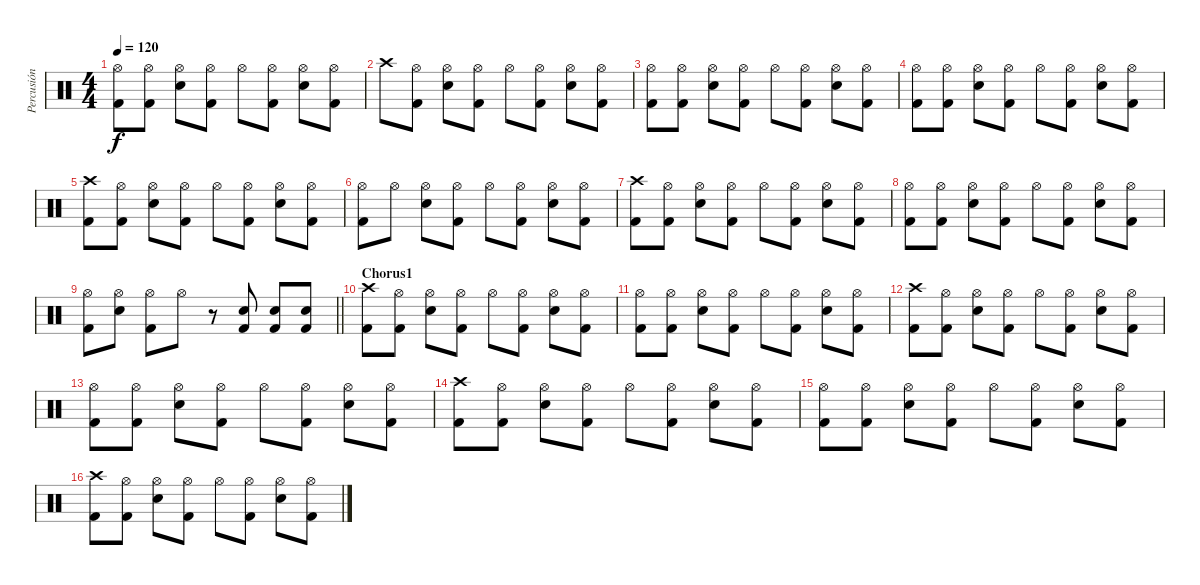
\track ("Percusión" "Percusión") {instrument percussion}
\staff {score}
\articulation defaults
\ts (4 4)
\tempo 120
\clef neutral
\ks c
("Hi-Hat (open)" "Kick (hit) 2").8{dy f} ("Hi-Hat (open)" "Kick (hit) 2").8 ("Hi-Hat (open)" "Snare (hit) 2").8 ("Hi-Hat (open)" "Kick (hit) 2").8 "Hi-Hat (open)".8 ("Hi-Hat (open)" "Kick (hit) 2").8 ("Hi-Hat (open)" "Snare (hit) 2").8 ("Hi-Hat (open)" "Kick (hit) 2").8 |
"Crash high (hit)".8 ("Hi-Hat (open)" "Kick (hit) 2").8 ("Hi-Hat (open)" "Snare (hit) 2").8 ("Hi-Hat (open)" "Kick (hit) 2").8 "Hi-Hat (open)".8 ("Hi-Hat (open)" "Kick (hit) 2").8 ("Hi-Hat (open)" "Snare (hit) 2").8 ("Hi-Hat (open)" "Kick (hit) 2").8 |
("Hi-Hat (open)" "Kick (hit) 2").8 ("Hi-Hat (open)" "Kick (hit) 2").8 ("Hi-Hat (open)" "Snare (hit) 2").8 ("Hi-Hat (open)" "Kick (hit) 2").8 "Hi-Hat (open)".8 ("Hi-Hat (open)" "Kick (hit) 2").8 ("Hi-Hat (open)" "Snare (hit) 2").8 ("Hi-Hat (open)" "Kick (hit) 2").8 |
("Hi-Hat (open)" "Kick (hit) 2").8 ("Hi-Hat (open)" "Kick (hit) 2").8 ("Hi-Hat (open)" "Snare (hit) 2").8 ("Hi-Hat (open)" "Kick (hit) 2").8 "Hi-Hat (open)".8 ("Hi-Hat (open)" "Kick (hit) 2").8 ("Hi-Hat (open)" "Snare (hit) 2").8 ("Hi-Hat (open)" "Kick (hit) 2").8 |
("Crash high (hit)" "Kick (hit) 2").8 ("Hi-Hat (open)" "Kick (hit) 2").8 ("Hi-Hat (open)" "Snare (hit) 2").8 ("Hi-Hat (open)" "Kick (hit) 2").8 "Hi-Hat (open)".8 ("Hi-Hat (open)" "Kick (hit) 2").8 ("Hi-Hat (open)" "Snare (hit) 2").8 ("Hi-Hat (open)" "Kick (hit) 2").8 |
("Hi-Hat (open)" "Kick (hit) 2").8 "Hi-Hat (open)".8 ("Hi-Hat (open)" "Snare (hit) 2").8 ("Hi-Hat (open)" "Kick (hit) 2").8 "Hi-Hat (open)".8 ("Hi-Hat (open)" "Kick (hit) 2").8 ("Hi-Hat (open)" "Snare (hit) 2").8 ("Hi-Hat (open)" "Kick (hit) 2").8 |
("Crash high (hit)" "Kick (hit) 2").8 ("Hi-Hat (open)" "Kick (hit) 2").8 ("Hi-Hat (open)" "Snare (hit) 2").8 ("Hi-Hat (open)" "Kick (hit) 2").8 "Hi-Hat (open)".8 ("Hi-Hat (open)" "Kick (hit) 2").8 ("Hi-Hat (open)" "Snare (hit) 2").8 ("Hi-Hat (open)" "Kick (hit) 2").8 |
("Hi-Hat (open)" "Kick (hit) 2").8 ("Hi-Hat (open)" "Kick (hit) 2").8 ("Hi-Hat (open)" "Snare (hit) 2").8 ("Hi-Hat (open)" "Kick (hit) 2").8 "Hi-Hat (open)".8 ("Hi-Hat (open)" "Kick (hit) 2").8 ("Hi-Hat (open)" "Snare (hit) 2").8 ("Hi-Hat (open)" "Kick (hit) 2").8 |
\barLineRight lightlight
("Hi-Hat (open)" "Kick (hit) 2").8 ("Hi-Hat (open)" "Snare (hit) 2").8 ("Hi-Hat (open)" "Kick (hit) 2").8 "Hi-Hat (open)".8 r.8 ("Snare (hit) 2" "Kick (hit) 2").8 ("Snare (hit) 2" "Kick (hit) 2").8 ("Snare (hit) 2" "Kick (hit) 2").8 |
\section ("" "Chorus1")
("Crash high (hit)" "Kick (hit) 2").8 ("Hi-Hat (open)" "Kick (hit) 2").8 ("Hi-Hat (open)" "Snare (hit) 2").8 ("Hi-Hat (open)" "Kick (hit) 2").8 "Hi-Hat (open)".8 ("Hi-Hat (open)" "Kick (hit) 2").8 ("Hi-Hat (open)" "Snare (hit) 2").8 ("Hi-Hat (open)" "Kick (hit) 2").8 |
("Hi-Hat (open)" "Kick (hit) 2").8 ("Hi-Hat (open)" "Kick (hit) 2").8 ("Hi-Hat (open)" "Snare (hit) 2").8 ("Hi-Hat (open)" "Kick (hit) 2").8 "Hi-Hat (open)".8 ("Hi-Hat (open)" "Kick (hit) 2").8 ("Hi-Hat (open)" "Snare (hit) 2").8 ("Hi-Hat (open)" "Kick (hit) 2").8 |
("Crash high (hit)" "Kick (hit) 2").8 ("Hi-Hat (open)" "Kick (hit) 2").8 ("Hi-Hat (open)" "Snare (hit) 2").8 ("Hi-Hat (open)" "Kick (hit) 2").8 "Hi-Hat (open)".8 ("Hi-Hat (open)" "Kick (hit) 2").8 ("Hi-Hat (open)" "Snare (hit) 2").8 ("Hi-Hat (open)" "Kick (hit) 2").8 |
("Hi-Hat (open)" "Kick (hit) 2").8 ("Hi-Hat (open)" "Kick (hit) 2").8 ("Hi-Hat (open)" "Snare (hit) 2").8 ("Hi-Hat (open)" "Kick (hit) 2").8 "Hi-Hat (open)".8 ("Hi-Hat (open)" "Kick (hit) 2").8 ("Hi-Hat (open)" "Snare (hit) 2").8 ("Hi-Hat (open)" "Kick (hit) 2").8 |
("Crash high (hit)" "Kick (hit) 2").8 ("Hi-Hat (open)" "Kick (hit) 2").8 ("Hi-Hat (open)" "Snare (hit) 2").8 ("Hi-Hat (open)" "Kick (hit) 2").8 "Hi-Hat (open)".8 ("Hi-Hat (open)" "Kick (hit) 2").8 ("Hi-Hat (open)" "Snare (hit) 2").8 ("Hi-Hat (open)" "Kick (hit) 2").8 |
("Hi-Hat (open)" "Kick (hit) 2").8 ("Hi-Hat (open)" "Kick (hit) 2").8 ("Hi-Hat (open)" "Snare (hit) 2").8 ("Hi-Hat (open)" "Kick (hit) 2").8 "Hi-Hat (open)".8 ("Hi-Hat (open)" "Kick (hit) 2").8 ("Hi-Hat (open)" "Snare (hit) 2").8 ("Hi-Hat (open)" "Kick (hit) 2").8 |
("Crash high (hit)" "Kick (hit) 2").8 ("Hi-Hat (open)" "Kick (hit) 2").8 ("Hi-Hat (open)" "Snare (hit) 2").8 ("Hi-Hat (open)" "Kick (hit) 2").8 "Hi-Hat (open)".8 ("Hi-Hat (open)" "Kick (hit) 2").8 ("Hi-Hat (open)" "Snare (hit) 2").8 ("Hi-Hat (open)" "Kick (hit) 2").8
